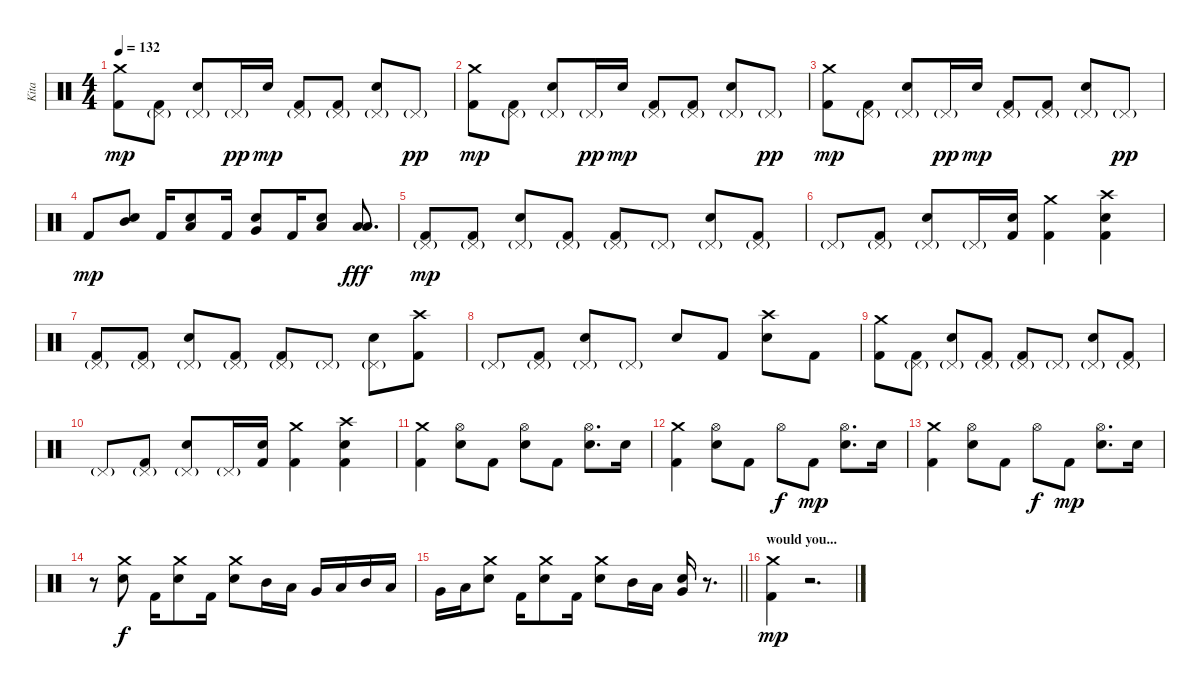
\track ("Kita" "Kita") {instrument percussion}
\staff {score}
\articulation defaults
\ts (4 4)
\tempo 132
\clef neutral
\ks c
("Crash medium (hit)" "Kick (hit) 2").8{dy mp} ("Pedal Hi-Hat (hit)"{g} "Kick (hit) 2").8 ("Pedal Hi-Hat (hit)"{g} "Snare (hit) 2").8 "Pedal Hi-Hat (hit)"{g}.16{dy pp} "Snare (hit) 2".16{dy mp} ("Pedal Hi-Hat (hit)"{g} "Kick (hit) 2").8 ("Pedal Hi-Hat (hit)"{g} "Kick (hit) 2").8 ("Pedal Hi-Hat (hit)"{g} "Snare (hit) 2").8 "Pedal Hi-Hat (hit)"{g}.8{dy pp} |
("Crash medium (hit)" "Kick (hit) 2").8{dy mp} ("Pedal Hi-Hat (hit)"{g} "Kick (hit) 2").8 ("Pedal Hi-Hat (hit)"{g} "Snare (hit) 2").8 "Pedal Hi-Hat (hit)"{g}.16{dy pp} "Snare (hit) 2".16{dy mp} ("Pedal Hi-Hat (hit)"{g} "Kick (hit) 2").8 ("Pedal Hi-Hat (hit)"{g} "Kick (hit) 2").8 ("Pedal Hi-Hat (hit)"{g} "Snare (hit) 2").8 "Pedal Hi-Hat (hit)"{g}.8{dy pp} |
("Crash medium (hit)" "Kick (hit) 2").8{dy mp} ("Pedal Hi-Hat (hit)"{g} "Kick (hit) 2").8 ("Pedal Hi-Hat (hit)"{g} "Snare (hit) 2").8 "Pedal Hi-Hat (hit)"{g}.16{dy pp} "Snare (hit) 2".16{dy mp} ("Pedal Hi-Hat (hit)"{g} "Kick (hit) 2").8 ("Pedal Hi-Hat (hit)"{g} "Kick (hit) 2").8 ("Pedal Hi-Hat (hit)"{g} "Snare (hit) 2").8 "Pedal Hi-Hat (hit)"{g}.8{dy pp} |
"Kick (hit) 2".8{dy mp} ("Mid Tom (hit)" "Snare (hit) 2").8 "Kick (hit) 2".16 ("Low Tom (hit)" "Snare (hit) 2").8 "Kick (hit) 2".16 ("Very Low Tom (hit)" "Snare (hit) 2").8 "Kick (hit) 2".16 ("Low Floor Tom (hit)" "Snare (hit) 2").8 ("Low Floor Tom (hit)" "Low Floor Tom (hit)").8{d dy fff} |
("Pedal Hi-Hat (hit)"{g} "Kick (hit) 2").8{dy mp} ("Pedal Hi-Hat (hit)"{g} "Kick (hit) 2").8 ("Snare (hit) 2" "Pedal Hi-Hat (hit)"{g}).8 ("Pedal Hi-Hat (hit)"{g} "Kick (hit) 2").8 ("Pedal Hi-Hat (hit)"{g} "Kick (hit) 2").8 "Pedal Hi-Hat (hit)"{g}.8 ("Snare (hit) 2" "Pedal Hi-Hat (hit)"{g}).8 ("Pedal Hi-Hat (hit)"{g} "Kick (hit) 2").8 |
"Pedal Hi-Hat (hit)"{g}.8 ("Pedal Hi-Hat (hit)"{g} "Kick (hit) 2").8 ("Snare (hit) 2" "Pedal Hi-Hat (hit)"{g}).8 "Pedal Hi-Hat (hit)"{g}.16 ("Snare (hit) 2" "Kick (hit) 2").16 ("Crash medium (hit)" "Kick (hit) 2").4 ("Crash high (hit)" "Snare (hit) 2" "Kick (hit) 2").4 |
("Pedal Hi-Hat (hit)"{g} "Kick (hit) 2").8 ("Pedal Hi-Hat (hit)"{g} "Kick (hit) 2").8 ("Snare (hit) 2" "Pedal Hi-Hat (hit)"{g}).8 ("Pedal Hi-Hat (hit)"{g} "Kick (hit) 2").8 ("Pedal Hi-Hat (hit)"{g} "Kick (hit) 2").8 "Pedal Hi-Hat (hit)"{g}.8 ("Snare (hit) 2" "Pedal Hi-Hat (hit)"{g}).8 ("Crash high (hit)" "Kick (hit) 2").8 |
"Pedal Hi-Hat (hit)"{g}.8 ("Pedal Hi-Hat (hit)"{g} "Kick (hit) 2").8 ("Snare (hit) 2" "Pedal Hi-Hat (hit)"{g}).8 "Pedal Hi-Hat (hit)"{g}.8 "Snare (hit) 2".8 "Kick (hit) 2".8 ("Crash high (hit)" "Snare (hit) 2").8 "Kick (hit) 2".8 |
("Crash medium (hit)" "Kick (hit) 2").8 ("Pedal Hi-Hat (hit)"{g} "Kick (hit) 2").8 ("Snare (hit) 2" "Pedal Hi-Hat (hit)"{g}).8 ("Pedal Hi-Hat (hit)"{g} "Kick (hit) 2").8 ("Pedal Hi-Hat (hit)"{g} "Kick (hit) 2").8 "Pedal Hi-Hat (hit)"{g}.8 ("Snare (hit) 2" "Pedal Hi-Hat (hit)"{g}).8 ("Pedal Hi-Hat (hit)"{g} "Kick (hit) 2").8 |
"Pedal Hi-Hat (hit)"{g}.8 ("Pedal Hi-Hat (hit)"{g} "Kick (hit) 2").8 ("Snare (hit) 2" "Pedal Hi-Hat (hit)"{g}).8 "Pedal Hi-Hat (hit)"{g}.16 ("Snare (hit) 2" "Kick (hit) 2").16 ("Crash medium (hit)" "Kick (hit) 2").4 ("Crash high (hit)" "Snare (hit) 2" "Kick (hit) 2").4 |
("Crash medium (hit)" "Kick (hit) 2").4 ("Snare (hit) 2" "Hi-Hat (open)").8 "Kick (hit) 2".8 ("Snare (hit) 2" "Hi-Hat (open)").8 "Kick (hit) 2".8 ("Snare (hit) 2" "Hi-Hat (open)").8{d} "Snare (hit) 2".16 |
("Crash medium (hit)" "Kick (hit) 2").4 ("Snare (hit) 2" "Hi-Hat (open)").8 "Kick (hit) 2".8 "Hi-Hat (open)".8{dy f} "Kick (hit) 2".8{dy mp} ("Snare (hit) 2" "Hi-Hat (open)").8{d} "Snare (hit) 2".16 |
("Crash medium (hit)" "Kick (hit) 2").4 ("Snare (hit) 2" "Hi-Hat (open)").8 "Kick (hit) 2".8 "Hi-Hat (open)".8{dy f} "Kick (hit) 2".8{dy mp} ("Snare (hit) 2" "Hi-Hat (open)").8{d} "Snare (hit) 2".16 |
r.8 ("Crash medium (hit)" "Snare (hit) 2").8{dy f} "Kick (hit) 2".16 ("Crash medium (hit)" "Snare (hit) 2").8 "Kick (hit) 2".16 ("Crash medium (hit)" "Snare (hit) 2").8 "Mid Tom (hit)".16 "Low Tom (hit)".16 "Very Low Tom (hit)".16 "Low Floor Tom (hit)".16 "Mid Tom (hit)".16 "Low Tom (hit)".16 |
\barLineRight lightlight "Very Low Tom (hit)".16 "Low Floor Tom (hit)".16
("Crash medium (hit)" "Snare (hit) 2").8 "Kick (hit) 2".16 ("Crash medium (hit)" "Snare (hit) 2").8 "Kick (hit) 2".16 ("Crash medium (hit)" "Snare (hit) 2").8 "Mid Tom (hit)".16 "Low Tom (hit)".16 ("Very Low Tom (hit)" "Snare (hit) 2").16 r.8{d} |
\section ("" "would you...")
("Crash medium (hit)" "Kick (hit) 2").4{dy mp} r.2{d}
